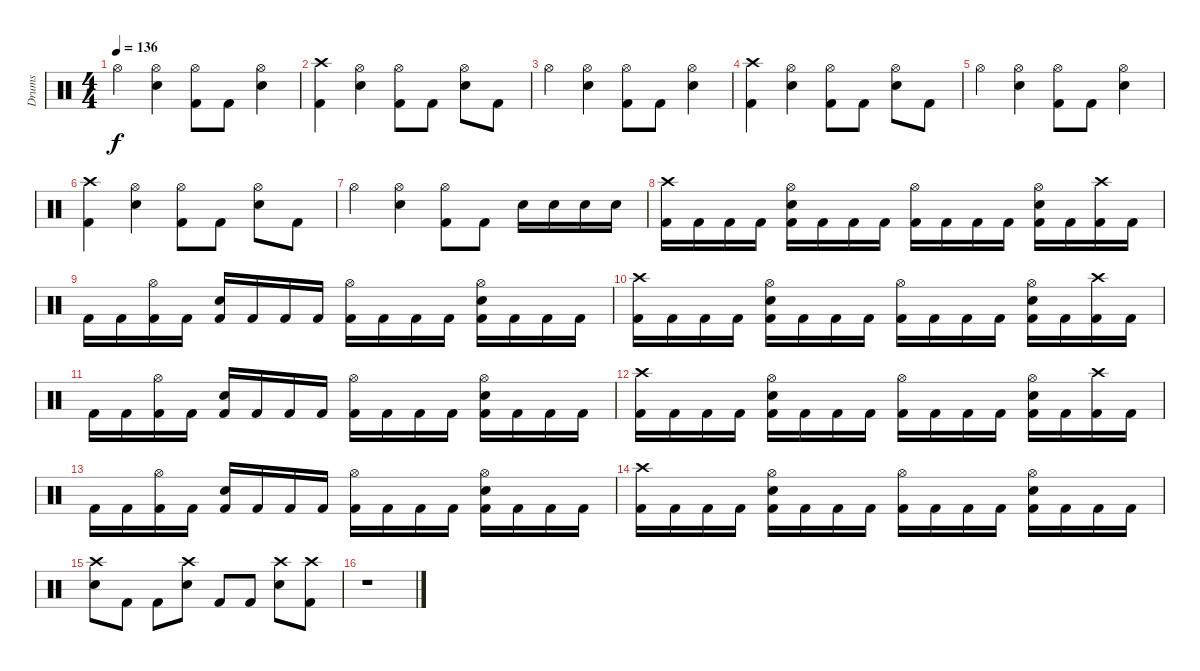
\track ("Drums" "Drums") {instrument percussion}
\staff {score}
\articulation defaults
\ts (4 4)
\tempo 136
\clef neutral
\ks c "Hi-Hat (open)".4{dy f}
("Hi-Hat (open)" "Snare (hit) 2").4 ("Kick (hit) 2" "Hi-Hat (open)").8 "Kick (hit) 2".8 ("Hi-Hat (open)" "Snare (hit) 2").4 |
("Kick (hit) 2" "Crash high (hit)").4 ("Snare (hit) 2" "Hi-Hat (open)").4 ("Kick (hit) 2" "Hi-Hat (open)").8 "Kick (hit) 2".8 ("Snare (hit) 2" "Hi-Hat (open)").8 "Kick (hit) 2".8 |
"Hi-Hat (open)".4 ("Hi-Hat (open)" "Snare (hit) 2").4 ("Kick (hit) 2" "Hi-Hat (open)").8 "Kick (hit) 2".8 ("Hi-Hat (open)" "Snare (hit) 2").4 |
("Kick (hit) 2" "Crash high (hit)").4 ("Snare (hit) 2" "Hi-Hat (open)").4 ("Kick (hit) 2" "Hi-Hat (open)").8 "Kick (hit) 2".8 ("Snare (hit) 2" "Hi-Hat (open)").8 "Kick (hit) 2".8 |
"Hi-Hat (open)".4 ("Hi-Hat (open)" "Snare (hit) 2").4 ("Kick (hit) 2" "Hi-Hat (open)").8 "Kick (hit) 2".8 ("Hi-Hat (open)" "Snare (hit) 2").4 |
("Kick (hit) 2" "Crash high (hit)").4 ("Snare (hit) 2" "Hi-Hat (open)").4 ("Kick (hit) 2" "Hi-Hat (open)").8 "Kick (hit) 2".8 ("Snare (hit) 2" "Hi-Hat (open)").8 "Kick (hit) 2".8 |
"Hi-Hat (open)".4 ("Hi-Hat (open)" "Snare (hit) 2").4 ("Kick (hit) 2" "Hi-Hat (open)").8 "Kick (hit) 2".8 "Snare (hit) 2".16 "Snare (hit) 2".16 "Snare (hit) 2".16 "Snare (hit) 2".16 |
("Kick (hit) 2" "Crash high (hit)").16 "Kick (hit) 2".16 "Kick (hit) 2".16 "Kick (hit) 2".16 ("Kick (hit) 2" "Hi-Hat (open)" "Snare (hit) 2").16 "Kick (hit) 2".16 "Kick (hit) 2".16 "Kick (hit) 2".16 ("Kick (hit) 2" "Hi-Hat (open)").16 "Kick (hit) 2".16 "Kick (hit) 2".16 "Kick (hit) 2".16 ("Kick (hit) 2" "Snare (hit) 2" "Hi-Hat (open)").16 "Kick (hit) 2".16 ("Kick (hit) 2" "Crash high (hit)").16 "Kick (hit) 2".16 |
"Kick (hit) 2".16 "Kick (hit) 2".16 ("Kick (hit) 2" "Hi-Hat (open)").16 "Kick (hit) 2".16 ("Kick (hit) 2" "Snare (hit) 2").16 "Kick (hit) 2".16 "Kick (hit) 2".16 "Kick (hit) 2".16 ("Kick (hit) 2" "Hi-Hat (open)").16 "Kick (hit) 2".16 "Kick (hit) 2".16 "Kick (hit) 2".16 ("Kick (hit) 2" "Snare (hit) 2" "Hi-Hat (open)").16 "Kick (hit) 2".16 "Kick (hit) 2".16 "Kick (hit) 2".16 |
("Kick (hit) 2" "Crash high (hit)").16 "Kick (hit) 2".16 "Kick (hit) 2".16 "Kick (hit) 2".16 ("Kick (hit) 2" "Hi-Hat (open)" "Snare (hit) 2").16 "Kick (hit) 2".16 "Kick (hit) 2".16 "Kick (hit) 2".16 ("Kick (hit) 2" "Hi-Hat (open)").16 "Kick (hit) 2".16 "Kick (hit) 2".16 "Kick (hit) 2".16 ("Kick (hit) 2" "Snare (hit) 2" "Hi-Hat (open)").16 "Kick (hit) 2".16 ("Kick (hit) 2" "Crash high (hit)").16 "Kick (hit) 2".16 |
"Kick (hit) 2".16 "Kick (hit) 2".16 ("Kick (hit) 2" "Hi-Hat (open)").16 "Kick (hit) 2".16 ("Kick (hit) 2" "Snare (hit) 2").16 "Kick (hit) 2".16 "Kick (hit) 2".16 "Kick (hit) 2".16 ("Kick (hit) 2" "Hi-Hat (open)").16 "Kick (hit) 2".16 "Kick (hit) 2".16 "Kick (hit) 2".16 ("Kick (hit) 2" "Snare (hit) 2" "Hi-Hat (open)").16 "Kick (hit) 2".16 "Kick (hit) 2".16 "Kick (hit) 2".16 |
("Kick (hit) 2" "Crash high (hit)").16 "Kick (hit) 2".16 "Kick (hit) 2".16 "Kick (hit) 2".16 ("Kick (hit) 2" "Hi-Hat (open)" "Snare (hit) 2").16 "Kick (hit) 2".16 "Kick (hit) 2".16 "Kick (hit) 2".16 ("Kick (hit) 2" "Hi-Hat (open)").16 "Kick (hit) 2".16 "Kick (hit) 2".16 "Kick (hit) 2".16 ("Kick (hit) 2" "Snare (hit) 2" "Hi-Hat (open)").16 "Kick (hit) 2".16 ("Kick (hit) 2" "Crash high (hit)").16 "Kick (hit) 2".16 |
"Kick (hit) 2".16 "Kick (hit) 2".16 ("Kick (hit) 2" "Hi-Hat (open)").16 "Kick (hit) 2".16 ("Kick (hit) 2" "Snare (hit) 2").16 "Kick (hit) 2".16 "Kick (hit) 2".16 "Kick (hit) 2".16 ("Kick (hit) 2" "Hi-Hat (open)").16 "Kick (hit) 2".16 "Kick (hit) 2".16 "Kick (hit) 2".16 ("Kick (hit) 2" "Snare (hit) 2" "Hi-Hat (open)").16 "Kick (hit) 2".16 "Kick (hit) 2".16 "Kick (hit) 2".16 |
("Kick (hit) 2" "Crash high (hit)").16 "Kick (hit) 2".16 "Kick (hit) 2".16 "Kick (hit) 2".16 ("Kick (hit) 2" "Hi-Hat (open)" "Snare (hit) 2").16 "Kick (hit) 2".16 "Kick (hit) 2".16 "Kick (hit) 2".16 ("Kick (hit) 2" "Hi-Hat (open)").16 "Kick (hit) 2".16 "Kick (hit) 2".16 "Kick (hit) 2".16 ("Kick (hit) 2" "Snare (hit) 2" "Hi-Hat (open)").16 "Kick (hit) 2".16 "Kick (hit) 2".16 "Kick (hit) 2".16 |
("Crash high (hit)" "Snare (hit) 2").8 "Kick (hit) 2".8 "Kick (hit) 2".8 ("Crash high (hit)" "Snare (hit) 2").8 "Kick (hit) 2".8 "Kick (hit) 2".8 ("Crash high (hit)" "Snare (hit) 2").8 ("Crash high (hit)" "Kick (hit) 2").8 |
r.1
